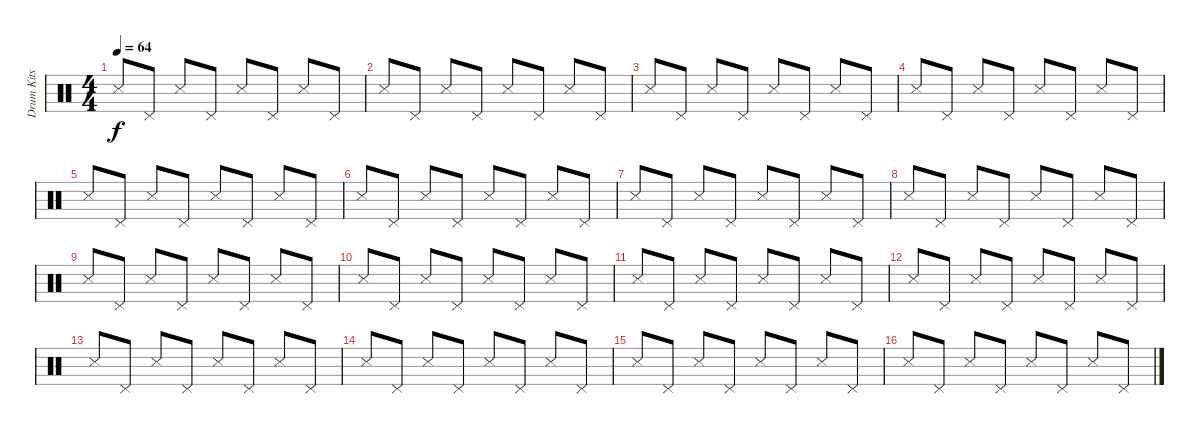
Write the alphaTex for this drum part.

\track ("Drum Kits" "Drum Kits") {instrument percussion}
\staff {score}
\articulation defaults
\ts (4 4)
\tempo 64
\clef neutral
\ks c "Snare (side stick) 3".8{dy f} "Pedal Hi-Hat (hit)".8 "Snare (side stick) 3".8 "Pedal Hi-Hat (hit)".8 "Snare (side stick) 3".8 "Pedal Hi-Hat (hit)".8 "Snare (side stick) 3".8 "Pedal Hi-Hat (hit)".8
|
"Snare (side stick) 3".8 "Pedal Hi-Hat (hit)".8 "Snare (side stick) 3".8 "Pedal Hi-Hat (hit)".8 "Snare (side stick) 3".8 "Pedal Hi-Hat (hit)".8 "Snare (side stick) 3".8 "Pedal Hi-Hat (hit)".8 |
"Snare (side stick) 3".8 "Pedal Hi-Hat (hit)".8 "Snare (side stick) 3".8 "Pedal Hi-Hat (hit)".8 "Snare (side stick) 3".8 "Pedal Hi-Hat (hit)".8 "Snare (side stick) 3".8 "Pedal Hi-Hat (hit)".8 |
"Snare (side stick) 3".8 "Pedal Hi-Hat (hit)".8 "Snare (side stick) 3".8 "Pedal Hi-Hat (hit)".8 "Snare (side stick) 3".8 "Pedal Hi-Hat (hit)".8 "Snare (side stick) 3".8 "Pedal Hi-Hat (hit)".8 |
"Snare (side stick) 3".8 "Pedal Hi-Hat (hit)".8 "Snare (side stick) 3".8 "Pedal Hi-Hat (hit)".8 "Snare (side stick) 3".8 "Pedal Hi-Hat (hit)".8 "Snare (side stick) 3".8 "Pedal Hi-Hat (hit)".8 |
"Snare (side stick) 3".8 "Pedal Hi-Hat (hit)".8 "Snare (side stick) 3".8 "Pedal Hi-Hat (hit)".8 "Snare (side stick) 3".8 "Pedal Hi-Hat (hit)".8 "Snare (side stick) 3".8 "Pedal Hi-Hat (hit)".8 |
"Snare (side stick) 3".8 "Pedal Hi-Hat (hit)".8 "Snare (side stick) 3".8 "Pedal Hi-Hat (hit)".8 "Snare (side stick) 3".8 "Pedal Hi-Hat (hit)".8 "Snare (side stick) 3".8 "Pedal Hi-Hat (hit)".8 |
"Snare (side stick) 3".8 "Pedal Hi-Hat (hit)".8 "Snare (side stick) 3".8 "Pedal Hi-Hat (hit)".8 "Snare (side stick) 3".8 "Pedal Hi-Hat (hit)".8 "Snare (side stick) 3".8 "Pedal Hi-Hat (hit)".8 |
"Snare (side stick) 3".8 "Pedal Hi-Hat (hit)".8 "Snare (side stick) 3".8 "Pedal Hi-Hat (hit)".8 "Snare (side stick) 3".8 "Pedal Hi-Hat (hit)".8 "Snare (side stick) 3".8 "Pedal Hi-Hat (hit)".8 |
"Snare (side stick) 3".8 "Pedal Hi-Hat (hit)".8 "Snare (side stick) 3".8 "Pedal Hi-Hat (hit)".8 "Snare (side stick) 3".8 "Pedal Hi-Hat (hit)".8 "Snare (side stick) 3".8 "Pedal Hi-Hat (hit)".8 |
"Snare (side stick) 3".8 "Pedal Hi-Hat (hit)".8 "Snare (side stick) 3".8 "Pedal Hi-Hat (hit)".8 "Snare (side stick) 3".8 "Pedal Hi-Hat (hit)".8 "Snare (side stick) 3".8 "Pedal Hi-Hat (hit)".8 |
"Snare (side stick) 3".8 "Pedal Hi-Hat (hit)".8 "Snare (side stick) 3".8 "Pedal Hi-Hat (hit)".8 "Snare (side stick) 3".8 "Pedal Hi-Hat (hit)".8 "Snare (side stick) 3".8 "Pedal Hi-Hat (hit)".8 |
"Snare (side stick) 3".8 "Pedal Hi-Hat (hit)".8 "Snare (side stick) 3".8 "Pedal Hi-Hat (hit)".8 "Snare (side stick) 3".8 "Pedal Hi-Hat (hit)".8 "Snare (side stick) 3".8 "Pedal Hi-Hat (hit)".8 |
"Snare (side stick) 3".8 "Pedal Hi-Hat (hit)".8 "Snare (side stick) 3".8 "Pedal Hi-Hat (hit)".8 "Snare (side stick) 3".8 "Pedal Hi-Hat (hit)".8 "Snare (side stick) 3".8 "Pedal Hi-Hat (hit)".8 |
"Snare (side stick) 3".8 "Pedal Hi-Hat (hit)".8 "Snare (side stick) 3".8 "Pedal Hi-Hat (hit)".8 "Snare (side stick) 3".8 "Pedal Hi-Hat (hit)".8 "Snare (side stick) 3".8 "Pedal Hi-Hat (hit)".8 |
"Snare (side stick) 3".8 "Pedal Hi-Hat (hit)".8 "Snare (side stick) 3".8 "Pedal Hi-Hat (hit)".8 "Snare (side stick) 3".8 "Pedal Hi-Hat (hit)".8 "Snare (side stick) 3".8 "Pedal Hi-Hat (hit)".8
